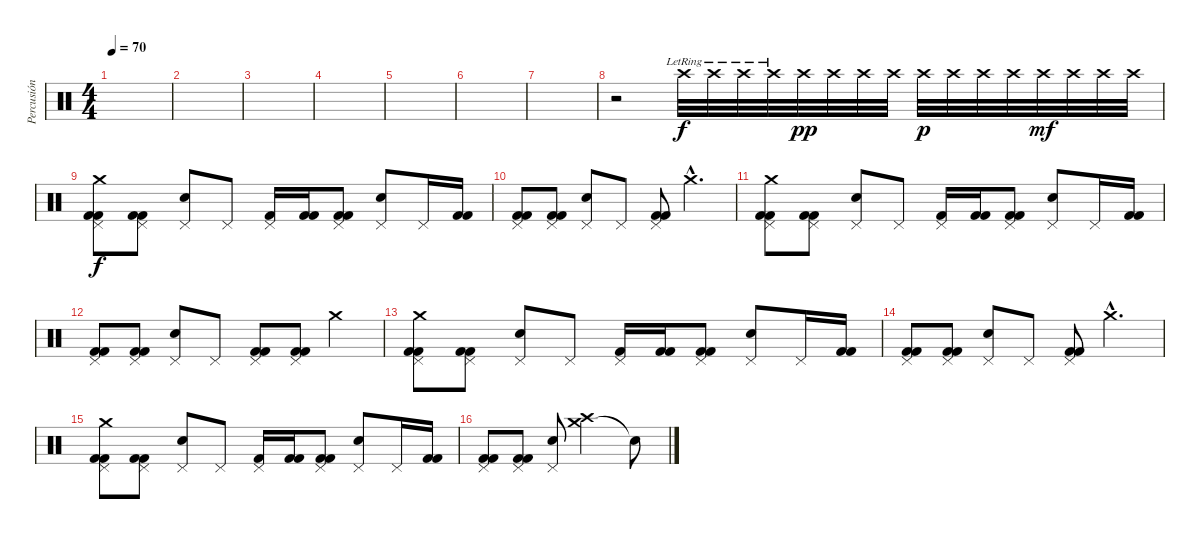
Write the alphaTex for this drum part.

\track ("Percusión" "Percusión") {instrument percussion}
\staff {score}
\articulation defaults
\ts (4 4)
\tempo 70
\clef neutral
\ks c
|
|
|
|
|
|
|
r.2 "Crash high (hit)"{lr}.32 "Crash high (hit)"{lr}.32 "Crash high (hit)"{lr}.32 "Crash high (hit)"{lr}.32 "Crash high (hit)".32{dy pp} "Crash high (hit)".32 "Crash high (hit)".32 "Crash high (hit)".32 "Crash high (hit)".32{dy p} "Crash high (hit)".32 "Crash high (hit)".32 "Crash high (hit)".32 "Crash high (hit)".32{dy mf} "Crash high (hit)".32 "Crash high (hit)".32 "Crash high (hit)".32 |
("Crash medium (hit)" "Pedal Hi-Hat (hit)" "Kick (hit) 2" "Kick (hit) 2").8{dy f} ("Pedal Hi-Hat (hit)" "Kick (hit) 2" "Kick (hit) 2").8 ("Snare (hit) 2" "Pedal Hi-Hat (hit)").8 "Pedal Hi-Hat (hit)".8 ("Pedal Hi-Hat (hit)" "Kick (hit) 2").16 ("Kick (hit) 2" "Kick (hit) 2").16 ("Pedal Hi-Hat (hit)" "Kick (hit) 2" "Kick (hit) 2").8 ("Pedal Hi-Hat (hit)" "Snare (hit) 2").8 "Pedal Hi-Hat (hit)".16 ("Kick (hit) 2" "Kick (hit) 2").16 |
("Pedal Hi-Hat (hit)" "Kick (hit) 2" "Kick (hit) 2").8 ("Pedal Hi-Hat (hit)" "Kick (hit) 2" "Kick (hit) 2").8 ("Snare (hit) 2" "Pedal Hi-Hat (hit)").8 "Pedal Hi-Hat (hit)".8 ("Pedal Hi-Hat (hit)" "Kick (hit) 2" "Kick (hit) 2").8 "Crash medium (hit)"{hac}.4{d} |
("Crash medium (hit)" "Pedal Hi-Hat (hit)" "Kick (hit) 2" "Kick (hit) 2").8 ("Pedal Hi-Hat (hit)" "Kick (hit) 2" "Kick (hit) 2").8 ("Snare (hit) 2" "Pedal Hi-Hat (hit)").8 "Pedal Hi-Hat (hit)".8 ("Pedal Hi-Hat (hit)" "Kick (hit) 2").16 ("Kick (hit) 2" "Kick (hit) 2").16 ("Pedal Hi-Hat (hit)" "Kick (hit) 2" "Kick (hit) 2").8 ("Pedal Hi-Hat (hit)" "Snare (hit) 2").8 "Pedal Hi-Hat (hit)".16 ("Kick (hit) 2" "Kick (hit) 2").16 |
("Pedal Hi-Hat (hit)" "Kick (hit) 2" "Kick (hit) 2").8 ("Pedal Hi-Hat (hit)" "Kick (hit) 2" "Kick (hit) 2").8 ("Snare (hit) 2" "Pedal Hi-Hat (hit)").8 "Pedal Hi-Hat (hit)".8 ("Pedal Hi-Hat (hit)" "Kick (hit) 2" "Kick (hit) 2").8 ("Pedal Hi-Hat (hit)" "Kick (hit) 2" "Kick (hit) 2").8 "Crash medium (hit)".4 |
("Crash medium (hit)" "Pedal Hi-Hat (hit)" "Kick (hit) 2" "Kick (hit) 2").8 ("Pedal Hi-Hat (hit)" "Kick (hit) 2" "Kick (hit) 2").8 ("Snare (hit) 2" "Pedal Hi-Hat (hit)").8 "Pedal Hi-Hat (hit)".8 ("Pedal Hi-Hat (hit)" "Kick (hit) 2").16 ("Kick (hit) 2" "Kick (hit) 2").16 ("Pedal Hi-Hat (hit)" "Kick (hit) 2" "Kick (hit) 2").8 ("Pedal Hi-Hat (hit)" "Snare (hit) 2").8 "Pedal Hi-Hat (hit)".16 ("Kick (hit) 2" "Kick (hit) 2").16 |
("Pedal Hi-Hat (hit)" "Kick (hit) 2" "Kick (hit) 2").8 ("Pedal Hi-Hat (hit)" "Kick (hit) 2" "Kick (hit) 2").8 ("Snare (hit) 2" "Pedal Hi-Hat (hit)").8 "Pedal Hi-Hat (hit)".8 ("Pedal Hi-Hat (hit)" "Kick (hit) 2" "Kick (hit) 2").8 "Crash medium (hit)"{hac}.4{d} |
("Crash medium (hit)" "Pedal Hi-Hat (hit)" "Kick (hit) 2" "Kick (hit) 2").8 ("Pedal Hi-Hat (hit)" "Kick (hit) 2" "Kick (hit) 2").8 ("Snare (hit) 2" "Pedal Hi-Hat (hit)").8 "Pedal Hi-Hat (hit)".8 ("Pedal Hi-Hat (hit)" "Kick (hit) 2").16 ("Kick (hit) 2" "Kick (hit) 2").16 ("Pedal Hi-Hat (hit)" "Kick (hit) 2" "Kick (hit) 2").8 ("Pedal Hi-Hat (hit)" "Snare (hit) 2").8 "Pedal Hi-Hat (hit)".16 ("Kick (hit) 2" "Kick (hit) 2").16 |
("Pedal Hi-Hat (hit)" "Kick (hit) 2" "Kick (hit) 2").8 ("Pedal Hi-Hat (hit)" "Kick (hit) 2" "Kick (hit) 2").8 ("Snare (hit) 2" "Pedal Hi-Hat (hit)").8 ("Crash medium (hit)" "Crash high (hit)").2 "Snare (hit)"{t}.8
